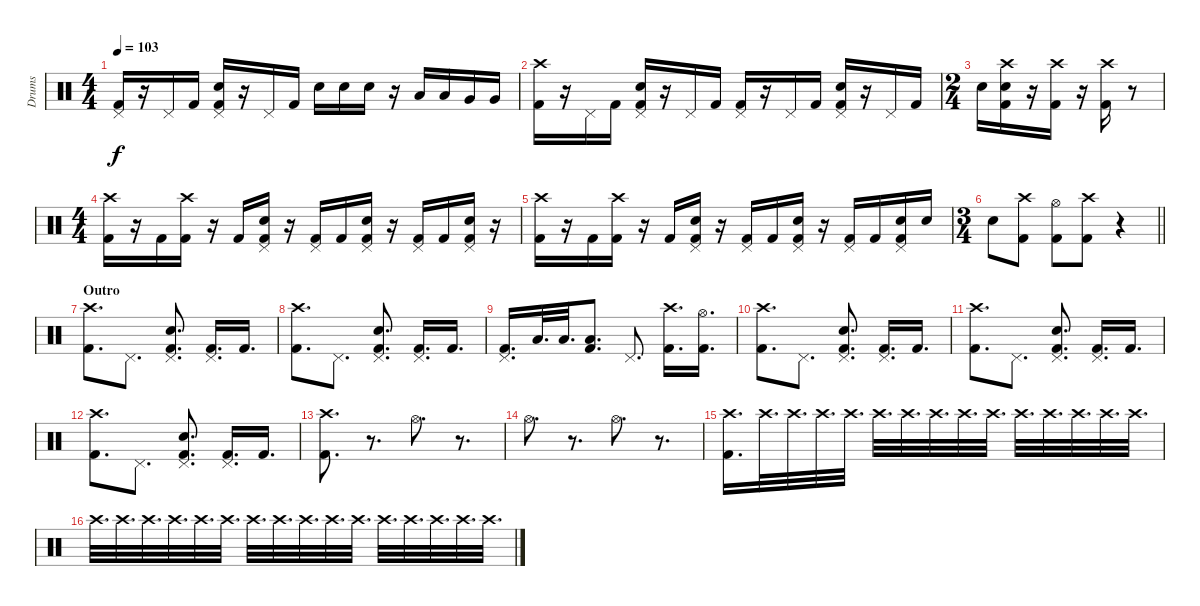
\track ("Drums" "Drums") {instrument percussion}
\staff {score}
\articulation defaults
\ts (4 4)
\tempo 103
\clef neutral
\ks c
("Pedal Hi-Hat (hit)" "Kick (hit) 2").16{dy f} r.16 "Pedal Hi-Hat (hit)".16 "Kick (hit) 2".16 ("Pedal Hi-Hat (hit)" "Snare (hit) 2" "Kick (hit) 2").16 r.16 "Pedal Hi-Hat (hit)".16 "Kick (hit) 2".16 "Snare (hit) 2".16 "Snare (hit) 2".16 "Snare (hit) 2".16 r.16 "Low Tom (hit)".16 "Low Tom (hit)".16 "Very Low Tom (hit)".16 "Very Low Tom (hit)".16 |
("Crash high (hit)" "Kick (hit) 2").16 r.16 "Pedal Hi-Hat (hit)".16 "Kick (hit) 2".16 ("Pedal Hi-Hat (hit)" "Snare (hit) 2" "Kick (hit) 2").16 r.16 "Pedal Hi-Hat (hit)".16 "Kick (hit) 2".16 ("Pedal Hi-Hat (hit)" "Kick (hit) 2").16 r.16 "Pedal Hi-Hat (hit)".16 "Kick (hit) 2".16 ("Pedal Hi-Hat (hit)" "Snare (hit) 2" "Kick (hit) 2").16 r.16 "Pedal Hi-Hat (hit)".16 "Kick (hit) 2".16 |
\ts (2 4)
"Snare (hit) 2".16 ("Crash high (hit)" "Snare (hit) 2" "Kick (hit) 2").16 r.16 ("Crash high (hit)" "Kick (hit) 2").16 r.16 ("Crash high (hit)" "Kick (hit) 2").16 r.8 |
\ts (4 4)
("Crash high (hit)" "Kick (hit) 2").16 r.16 "Kick (hit) 2".16 ("Crash high (hit)" "Kick (hit) 2").16 r.16 "Kick (hit) 2".16 ("Pedal Hi-Hat (hit)" "Snare (hit) 2" "Kick (hit) 2").16 r.16 ("Pedal Hi-Hat (hit)" "Kick (hit) 2").16 "Kick (hit) 2".16 ("Pedal Hi-Hat (hit)" "Snare (hit) 2" "Kick (hit) 2").16 r.16 ("Pedal Hi-Hat (hit)" "Kick (hit) 2").16 "Kick (hit) 2".16 ("Pedal Hi-Hat (hit)" "Snare (hit) 2" "Kick (hit) 2").16 r.16 |
("Crash high (hit)" "Kick (hit) 2").16 r.16 "Kick (hit) 2".16 ("Crash high (hit)" "Kick (hit) 2").16 r.16 "Kick (hit) 2".16 ("Pedal Hi-Hat (hit)" "Snare (hit) 2" "Kick (hit) 2").16 r.16 ("Pedal Hi-Hat (hit)" "Kick (hit) 2").16 "Kick (hit) 2".16 ("Pedal Hi-Hat (hit)" "Snare (hit) 2" "Kick (hit) 2").16 r.16 ("Pedal Hi-Hat (hit)" "Kick (hit) 2").16 "Kick (hit) 2".16 ("Pedal Hi-Hat (hit)" "Snare (hit) 2" "Kick (hit) 2").16 "Snare (hit) 2".16 |
\ts (3 4)
\barLineRight lightlight "Snare (hit) 2".8
("Crash high (hit)" "Kick (hit) 2").8 ("Hi-Hat (open)" "Kick (hit) 2").8 ("Crash high (hit)" "Kick (hit) 2").8 r.4 |
\section ("" "Outro")
("Crash high (hit)" "Kick (hit) 2").8{d} "Pedal Hi-Hat (hit)".8{d} ("Pedal Hi-Hat (hit)" "Snare (hit) 2" "Kick (hit) 2").8{d} ("Pedal Hi-Hat (hit)" "Kick (hit) 2").16{d} "Kick (hit) 2".16{d} |
("Crash high (hit)" "Kick (hit) 2").8{d} "Pedal Hi-Hat (hit)".8{d} ("Pedal Hi-Hat (hit)" "Snare (hit) 2" "Kick (hit) 2").8{d} ("Pedal Hi-Hat (hit)" "Kick (hit) 2").16{d} "Kick (hit) 2".16{d} |
("Pedal Hi-Hat (hit)" "Kick (hit) 2").16{d} "Low Tom (hit)".32{d} "Low Tom (hit)".32{d} ("Low Tom (hit)" "Kick (hit) 2").8{d} "Pedal Hi-Hat (hit)".8{d} ("Crash high (hit)" "Kick (hit) 2").16{d} ("Hi-Hat (open)" "Kick (hit) 2").16{d} |
("Crash high (hit)" "Kick (hit) 2").8{d} "Pedal Hi-Hat (hit)".8{d} ("Pedal Hi-Hat (hit)" "Snare (hit) 2" "Kick (hit) 2").8{d} ("Pedal Hi-Hat (hit)" "Kick (hit) 2").16{d} "Kick (hit) 2".16{d} |
("Crash high (hit)" "Kick (hit) 2").8{d} "Pedal Hi-Hat (hit)".8{d} ("Pedal Hi-Hat (hit)" "Snare (hit) 2" "Kick (hit) 2").8{d} ("Pedal Hi-Hat (hit)" "Kick (hit) 2").16{d} "Kick (hit) 2".16{d} |
("Crash high (hit)" "Kick (hit) 2").8{d} "Pedal Hi-Hat (hit)".8{d} ("Pedal Hi-Hat (hit)" "Snare (hit) 2" "Kick (hit) 2").8{d} ("Pedal Hi-Hat (hit)" "Kick (hit) 2").16{d} "Kick (hit) 2".16{d} |
("Crash high (hit)" "Kick (hit) 2").8{d} r.8{d} "Hi-Hat (open)".8{d} r.8{d} |
"Hi-Hat (open)".8{d} r.8{d} "Hi-Hat (open)".8{d} r.8{d} |
("Crash high (hit)" "Kick (hit) 2").16{d} "Crash high (hit)".32{d} "Crash high (hit)".32{d} "Crash high (hit)".32{d} "Crash high (hit)".32{d} "Crash high (hit)".32{d} "Crash high (hit)".32{d} "Crash high (hit)".32{d} "Crash high (hit)".32{d} "Crash high (hit)".32{d} "Crash high (hit)".32{d} "Crash high (hit)".32{d} "Crash high (hit)".32{d} "Crash high (hit)".32{d} "Crash high (hit)".32{d} |
"Crash high (hit)".32{d} "Crash high (hit)".32{d} "Crash high (hit)".32{d} "Crash high (hit)".32{d} "Crash high (hit)".32{d} "Crash high (hit)".32{d} "Crash high (hit)".32{d} "Crash high (hit)".32{d} "Crash high (hit)".32{d} "Crash high (hit)".32{d} "Crash high (hit)".32{d} "Crash high (hit)".32{d} "Crash high (hit)".32{d} "Crash high (hit)".32{d} "Crash high (hit)".32{d} "Crash high (hit)".32{d}
